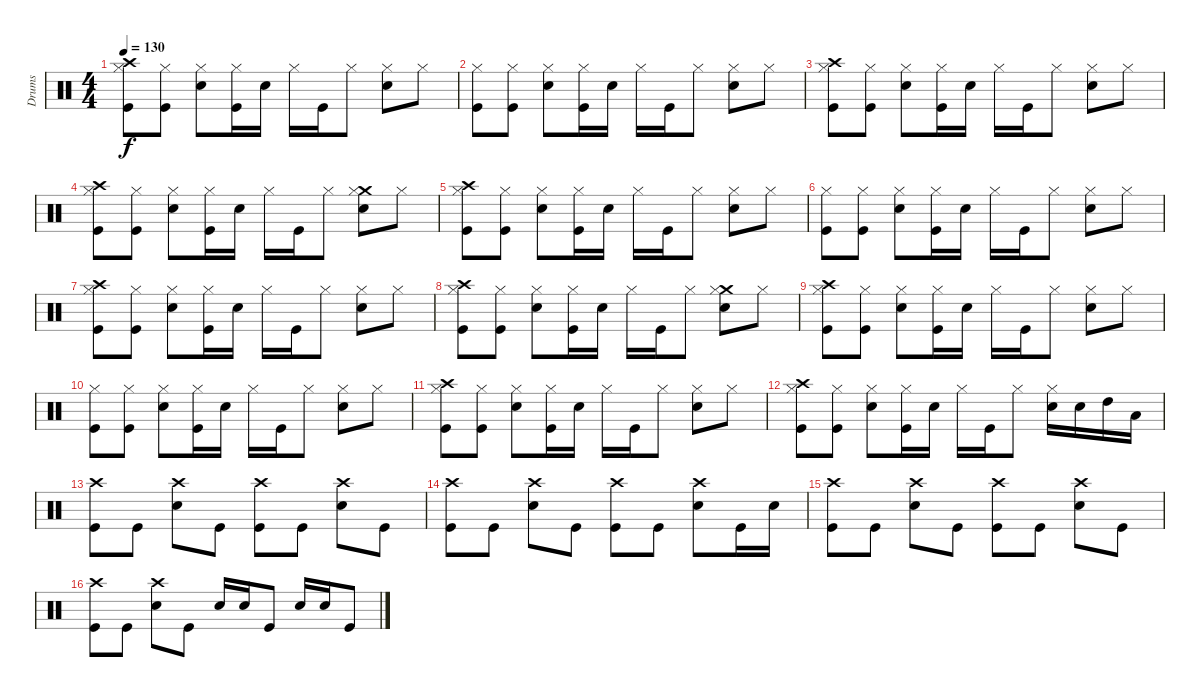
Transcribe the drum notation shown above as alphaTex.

\track ("Drums" "Drums") {instrument percussion}
\staff {score}
\articulation defaults
\ts (4 4)
\tempo 130
\clef neutral
\ks c
("Crash high (hit)" "Hi-Hat (closed)" "Kick (hit)").8{dy f} ("Hi-Hat (closed)" "Kick (hit)").8 ("Hi-Hat (closed)" "Snare (hit) 2").8 ("Hi-Hat (closed)" "Kick (hit)").16 "Snare (hit) 2".16 "Hi-Hat (closed)".16 "Kick (hit)".16 "Hi-Hat (closed)".8 ("Hi-Hat (closed)" "Snare (hit) 2").8 "Hi-Hat (closed)".8 |
("Hi-Hat (closed)" "Kick (hit)").8 ("Hi-Hat (closed)" "Kick (hit)").8 ("Hi-Hat (closed)" "Snare (hit) 2").8 ("Hi-Hat (closed)" "Kick (hit)").16 "Snare (hit) 2".16 "Hi-Hat (closed)".16 "Kick (hit)".16 "Hi-Hat (closed)".8 ("Hi-Hat (closed)" "Snare (hit) 2").8 "Hi-Hat (closed)".8 |
("Crash high (hit)" "Hi-Hat (closed)" "Kick (hit)").8 ("Hi-Hat (closed)" "Kick (hit)").8 ("Hi-Hat (closed)" "Snare (hit) 2").8 ("Hi-Hat (closed)" "Kick (hit)").16 "Snare (hit) 2".16 "Hi-Hat (closed)".16 "Kick (hit)".16 "Hi-Hat (closed)".8 ("Hi-Hat (closed)" "Snare (hit) 2").8 "Hi-Hat (closed)".8 |
("Crash high (hit)" "Hi-Hat (closed)" "Kick (hit)").8 ("Hi-Hat (closed)" "Kick (hit)").8 ("Hi-Hat (closed)" "Snare (hit) 2").8 ("Hi-Hat (closed)" "Kick (hit)").16 "Snare (hit) 2".16 "Hi-Hat (closed)".16 "Kick (hit)".16 "Hi-Hat (closed)".8 ("Crash medium (hit)" "Hi-Hat (closed)" "Snare (hit) 2").8 "Hi-Hat (closed)".8 |
("Crash high (hit)" "Hi-Hat (closed)" "Kick (hit)").8 ("Hi-Hat (closed)" "Kick (hit)").8 ("Hi-Hat (closed)" "Snare (hit) 2").8 ("Hi-Hat (closed)" "Kick (hit)").16 "Snare (hit) 2".16 "Hi-Hat (closed)".16 "Kick (hit)".16 "Hi-Hat (closed)".8 ("Hi-Hat (closed)" "Snare (hit) 2").8 "Hi-Hat (closed)".8 |
("Hi-Hat (closed)" "Kick (hit)").8 ("Hi-Hat (closed)" "Kick (hit)").8 ("Hi-Hat (closed)" "Snare (hit) 2").8 ("Hi-Hat (closed)" "Kick (hit)").16 "Snare (hit) 2".16 "Hi-Hat (closed)".16 "Kick (hit)".16 "Hi-Hat (closed)".8 ("Hi-Hat (closed)" "Snare (hit) 2").8 "Hi-Hat (closed)".8 |
("Crash high (hit)" "Hi-Hat (closed)" "Kick (hit)").8 ("Hi-Hat (closed)" "Kick (hit)").8 ("Hi-Hat (closed)" "Snare (hit) 2").8 ("Hi-Hat (closed)" "Kick (hit)").16 "Snare (hit) 2".16 "Hi-Hat (closed)".16 "Kick (hit)".16 "Hi-Hat (closed)".8 ("Hi-Hat (closed)" "Snare (hit) 2").8 "Hi-Hat (closed)".8 |
("Crash high (hit)" "Hi-Hat (closed)" "Kick (hit)").8 ("Hi-Hat (closed)" "Kick (hit)").8 ("Hi-Hat (closed)" "Snare (hit) 2").8 ("Hi-Hat (closed)" "Kick (hit)").16 "Snare (hit) 2".16 "Hi-Hat (closed)".16 "Kick (hit)".16 "Hi-Hat (closed)".8 ("Crash medium (hit)" "Hi-Hat (closed)" "Snare (hit) 2").8 "Hi-Hat (closed)".8 |
("Crash high (hit)" "Hi-Hat (closed)" "Kick (hit)").8 ("Hi-Hat (closed)" "Kick (hit)").8 ("Hi-Hat (closed)" "Snare (hit) 2").8 ("Hi-Hat (closed)" "Kick (hit)").16 "Snare (hit) 2".16 "Hi-Hat (closed)".16 "Kick (hit)".16 "Hi-Hat (closed)".8 ("Hi-Hat (closed)" "Snare (hit) 2").8 "Hi-Hat (closed)".8 |
("Hi-Hat (closed)" "Kick (hit)").8 ("Hi-Hat (closed)" "Kick (hit)").8 ("Hi-Hat (closed)" "Snare (hit) 2").8 ("Hi-Hat (closed)" "Kick (hit)").16 "Snare (hit) 2".16 "Hi-Hat (closed)".16 "Kick (hit)".16 "Hi-Hat (closed)".8 ("Hi-Hat (closed)" "Snare (hit) 2").8 "Hi-Hat (closed)".8 |
("Crash high (hit)" "Hi-Hat (closed)" "Kick (hit)").8 ("Hi-Hat (closed)" "Kick (hit)").8 ("Hi-Hat (closed)" "Snare (hit) 2").8 ("Hi-Hat (closed)" "Kick (hit)").16 "Snare (hit) 2".16 "Hi-Hat (closed)".16 "Kick (hit)".16 "Hi-Hat (closed)".8 ("Hi-Hat (closed)" "Snare (hit) 2").8 "Hi-Hat (closed)".8 |
("Crash high (hit)" "Hi-Hat (closed)" "Kick (hit)").8 ("Hi-Hat (closed)" "Kick (hit)").8 ("Hi-Hat (closed)" "Snare (hit) 2").8 ("Hi-Hat (closed)" "Kick (hit)").16 "Snare (hit) 2".16 "Hi-Hat (closed)".16 "Kick (hit)".16 "Hi-Hat (closed)".8 ("Hi-Hat (closed)" "Snare (hit) 2").16 "Snare (hit) 2".16 "High Tom (hit)".16 "Low Tom (hit)".16 |
("Crash high (hit)" "Kick (hit)").8 "Kick (hit)".8 ("Crash high (hit)" "Snare (hit) 2").8 "Kick (hit)".8 ("Crash high (hit)" "Kick (hit)").8 "Kick (hit)".8 ("Crash high (hit)" "Snare (hit) 2").8 "Kick (hit)".8 |
("Crash high (hit)" "Kick (hit)").8 "Kick (hit)".8 ("Crash high (hit)" "Snare (hit) 2").8 "Kick (hit)".8 ("Crash high (hit)" "Kick (hit)").8 "Kick (hit)".8 ("Crash high (hit)" "Snare (hit) 2").8 "Kick (hit)".16 "Snare (hit) 2".16 |
("Crash high (hit)" "Kick (hit)").8 "Kick (hit)".8 ("Crash high (hit)" "Snare (hit) 2").8 "Kick (hit)".8 ("Crash high (hit)" "Kick (hit)").8 "Kick (hit)".8 ("Crash high (hit)" "Snare (hit) 2").8 "Kick (hit)".8 |
("Crash high (hit)" "Kick (hit)").8 "Kick (hit)".8 ("Crash high (hit)" "Snare (hit) 2").8 "Kick (hit)".8 "Snare (hit) 2".16 "Snare (hit) 2".16 "Kick (hit)".8 "Snare (hit) 2".16 "Snare (hit) 2".16 "Kick (hit)".8
